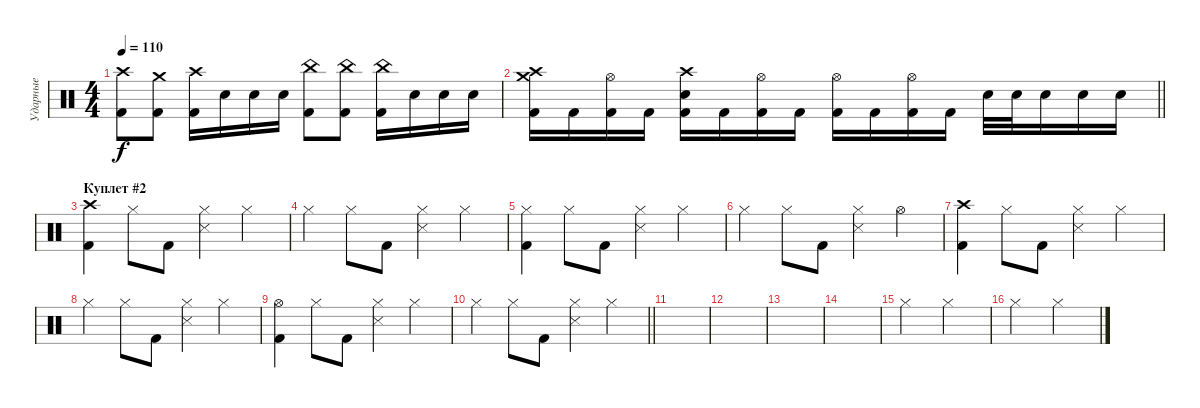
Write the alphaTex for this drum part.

\track ("Ударные" "Ударные") {instrument percussion}
\staff
\articulation defaults
\ts (4 4)
\tempo 110
\clef neutral
\ks c
("Crash high (hit)" "Kick (hit) 2").8{dy f} ("Crash medium (hit)" "Kick (hit) 2").8 ("Crash high (hit)" "Kick (hit) 2").16 "Electric Snare (hit)".16 "Electric Snare (hit)".16 "Electric Snare (hit)".16 ("China (hit)" "Kick (hit) 2").8 ("China (hit)" "Kick (hit) 2").8 ("China (hit)" "Kick (hit) 2").16 "Electric Snare (hit)".16 "Electric Snare (hit)".16 "Electric Snare (hit)".16 |
\barLineRight lightlight
("Crash high (hit)" "Crash medium (hit)" "Kick (hit) 2").16 "Kick (hit) 2".16 ("Hi-Hat (open)" "Kick (hit) 2").16 "Kick (hit) 2".16 ("Crash high (hit)" "Electric Snare (hit)" "Kick (hit) 2").16 "Kick (hit) 2".16 ("Hi-Hat (open)" "Kick (hit) 2").16 "Kick (hit) 2".16 ("Hi-Hat (open)" "Kick (hit) 2").16 "Kick (hit) 2".16 ("Hi-Hat (open)" "Kick (hit) 2").16 "Kick (hit) 2".16 "Electric Snare (hit)".32 "Electric Snare (hit)".32 "Electric Snare (hit)".16 "Electric Snare (hit)".16 "Electric Snare (hit)".16 |
\section ("" "Куплет #2")
("Crash high (hit)" "Kick (hit) 2").4 "Hi-Hat (closed)".8 "Kick (hit) 2".8 ("Hi-Hat (closed)" "Snare (side stick) 3").4 "Hi-Hat (closed)".4 |
"Hi-Hat (closed)".4 "Hi-Hat (closed)".8 "Kick (hit) 2".8 ("Hi-Hat (closed)" "Snare (side stick) 3").4 "Hi-Hat (closed)".4 |
("Hi-Hat (closed)" "Kick (hit) 2").4 "Hi-Hat (closed)".8 "Kick (hit) 2".8 ("Hi-Hat (closed)" "Snare (side stick) 3").4 "Hi-Hat (closed)".4 |
"Hi-Hat (closed)".4 "Hi-Hat (closed)".8 "Kick (hit) 2".8 ("Hi-Hat (closed)" "Snare (side stick) 3").4 "Hi-Hat (open)".4 |
("Crash high (hit)" "Kick (hit) 2").4 "Hi-Hat (closed)".8 "Kick (hit) 2".8 ("Hi-Hat (closed)" "Snare (side stick) 3").4 "Hi-Hat (closed)".4 |
"Hi-Hat (closed)".4 "Hi-Hat (closed)".8 "Kick (hit) 2".8 ("Hi-Hat (closed)" "Snare (side stick) 3").4 "Hi-Hat (closed)".4 |
("Hi-Hat (open)" "Kick (hit) 2").4 "Hi-Hat (closed)".8 "Kick (hit) 2".8 ("Hi-Hat (closed)" "Snare (side stick) 3").4 "Hi-Hat (closed)".4 |
\barLineRight lightlight "Hi-Hat (closed)".4 "Hi-Hat (closed)".8 "Kick (hit) 2".8
("Hi-Hat (closed)" "Snare (side stick) 3").4 "Hi-Hat (closed)".4 |
|
|
|
|
"Hi-Hat (closed)".2 "Hi-Hat (closed)".2 |
"Hi-Hat (closed)".2 "Hi-Hat (closed)".2
